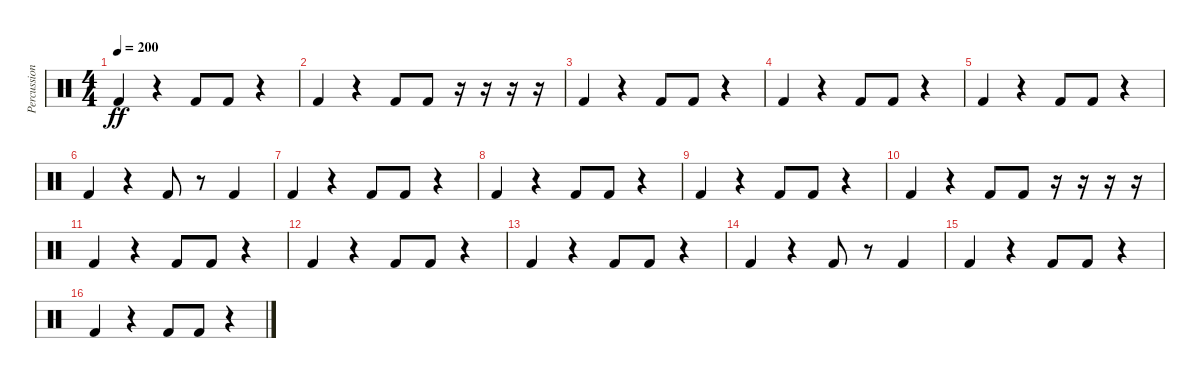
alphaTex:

\track ("Percussions 2" "Percussion") {instrument percussion}
\staff {score}
\articulation defaults
\ts (4 4)
\tempo 200
\clef neutral
\ks c "Kick (hit) 2".4{dy ff}
r.4 "Kick (hit) 2".8 "Kick (hit) 2".8 r.4 |
"Kick (hit) 2".4 r.4 "Kick (hit) 2".8 "Kick (hit) 2".8 r.16 r.16 r.16 r.16 |
"Kick (hit) 2".4 r.4 "Kick (hit) 2".8 "Kick (hit) 2".8 r.4 |
"Kick (hit) 2".4 r.4 "Kick (hit) 2".8 "Kick (hit) 2".8 r.4 |
"Kick (hit) 2".4 r.4 "Kick (hit) 2".8 "Kick (hit) 2".8 r.4 |
"Kick (hit) 2".4 r.4 "Kick (hit) 2".8 r.8 "Kick (hit) 2".4 |
"Kick (hit) 2".4 r.4 "Kick (hit) 2".8 "Kick (hit) 2".8 r.4 |
"Kick (hit) 2".4 r.4 "Kick (hit) 2".8 "Kick (hit) 2".8 r.4 |
"Kick (hit) 2".4 r.4 "Kick (hit) 2".8 "Kick (hit) 2".8 r.4 |
"Kick (hit) 2".4 r.4 "Kick (hit) 2".8 "Kick (hit) 2".8 r.16 r.16 r.16 r.16 |
"Kick (hit) 2".4 r.4 "Kick (hit) 2".8 "Kick (hit) 2".8 r.4 |
"Kick (hit) 2".4 r.4 "Kick (hit) 2".8 "Kick (hit) 2".8 r.4 |
"Kick (hit) 2".4 r.4 "Kick (hit) 2".8 "Kick (hit) 2".8 r.4 |
"Kick (hit) 2".4 r.4 "Kick (hit) 2".8 r.8 "Kick (hit) 2".4 |
"Kick (hit) 2".4 r.4 "Kick (hit) 2".8 "Kick (hit) 2".8 r.4 |
"Kick (hit) 2".4 r.4 "Kick (hit) 2".8 "Kick (hit) 2".8 r.4
